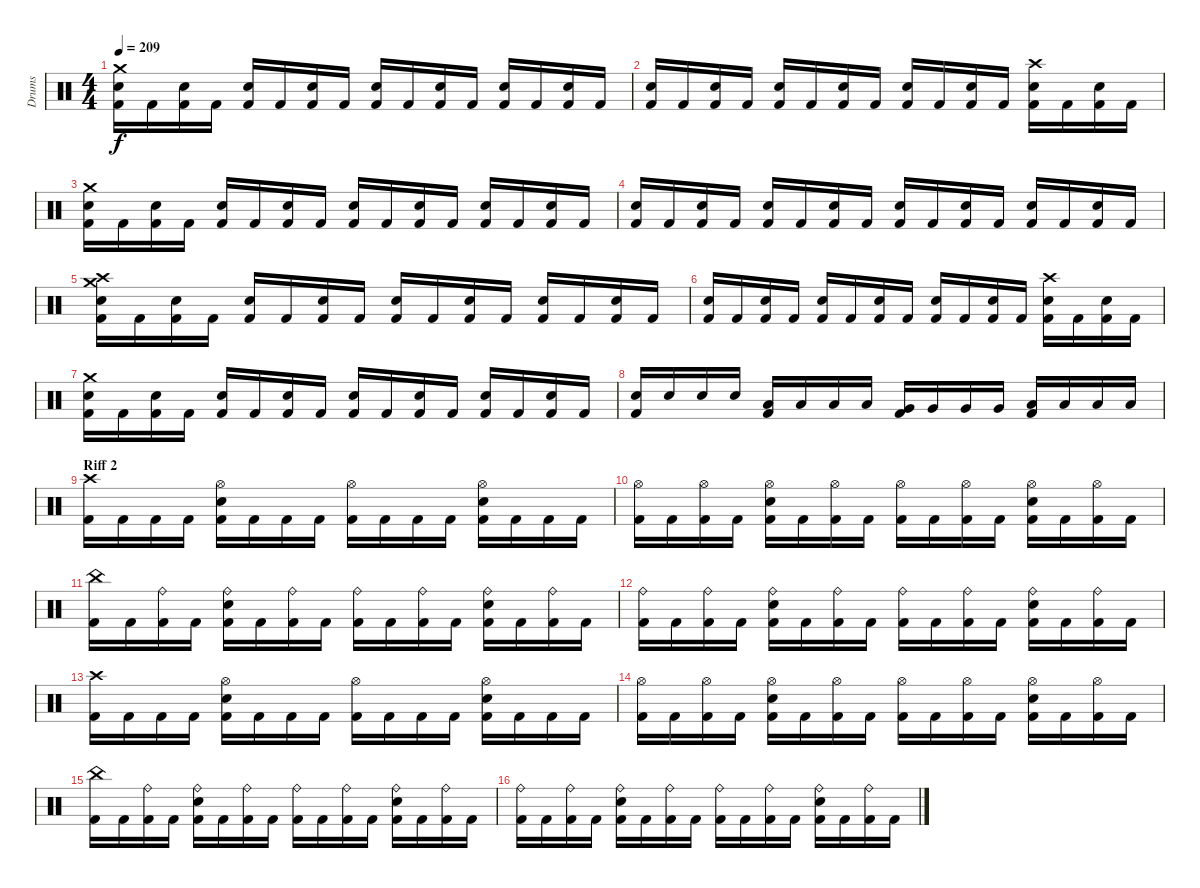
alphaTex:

\track ("Drums" "Drums") {instrument percussion}
\staff {score}
\articulation defaults
\ts (4 4)
\tempo 209
\clef neutral
\ks c
("Kick (hit) 2" "Snare (hit) 2" "Crash medium (hit)").16{dy f} "Kick (hit) 2".16 ("Kick (hit) 2" "Snare (hit) 2").16 "Kick (hit) 2".16 ("Kick (hit) 2" "Snare (hit) 2").16 "Kick (hit) 2".16 ("Kick (hit) 2" "Snare (hit) 2").16 "Kick (hit) 2".16 ("Kick (hit) 2" "Snare (hit) 2").16 "Kick (hit) 2".16 ("Kick (hit) 2" "Snare (hit) 2").16 "Kick (hit) 2".16 ("Kick (hit) 2" "Snare (hit) 2").16 "Kick (hit) 2".16 ("Kick (hit) 2" "Snare (hit) 2").16 "Kick (hit) 2".16 |
("Kick (hit) 2" "Snare (hit) 2").16 "Kick (hit) 2".16 ("Kick (hit) 2" "Snare (hit) 2").16 "Kick (hit) 2".16 ("Kick (hit) 2" "Snare (hit) 2").16 "Kick (hit) 2".16 ("Kick (hit) 2" "Snare (hit) 2").16 "Kick (hit) 2".16 ("Kick (hit) 2" "Snare (hit) 2").16 "Kick (hit) 2".16 ("Kick (hit) 2" "Snare (hit) 2").16 "Kick (hit) 2".16 ("Kick (hit) 2" "Snare (hit) 2" "Crash high (hit)").16 "Kick (hit) 2".16 ("Kick (hit) 2" "Snare (hit) 2").16 "Kick (hit) 2".16 |
("Kick (hit) 2" "Snare (hit) 2" "Crash medium (hit)").16 "Kick (hit) 2".16 ("Kick (hit) 2" "Snare (hit) 2").16 "Kick (hit) 2".16 ("Kick (hit) 2" "Snare (hit) 2").16 "Kick (hit) 2".16 ("Kick (hit) 2" "Snare (hit) 2").16 "Kick (hit) 2".16 ("Kick (hit) 2" "Snare (hit) 2").16 "Kick (hit) 2".16 ("Kick (hit) 2" "Snare (hit) 2").16 "Kick (hit) 2".16 ("Kick (hit) 2" "Snare (hit) 2").16 "Kick (hit) 2".16 ("Kick (hit) 2" "Snare (hit) 2").16 "Kick (hit) 2".16 |
("Kick (hit) 2" "Snare (hit) 2").16 "Kick (hit) 2".16 ("Kick (hit) 2" "Snare (hit) 2").16 "Kick (hit) 2".16 ("Kick (hit) 2" "Snare (hit) 2").16 "Kick (hit) 2".16 ("Kick (hit) 2" "Snare (hit) 2").16 "Kick (hit) 2".16 ("Kick (hit) 2" "Snare (hit) 2").16 "Kick (hit) 2".16 ("Kick (hit) 2" "Snare (hit) 2").16 "Kick (hit) 2".16 ("Kick (hit) 2" "Snare (hit) 2").16 "Kick (hit) 2".16 ("Kick (hit) 2" "Snare (hit) 2").16 "Kick (hit) 2".16 |
("Kick (hit) 2" "Snare (hit) 2" "Crash high (hit)" "Crash medium (hit)").16 "Kick (hit) 2".16 ("Kick (hit) 2" "Snare (hit) 2").16 "Kick (hit) 2".16 ("Kick (hit) 2" "Snare (hit) 2").16 "Kick (hit) 2".16 ("Kick (hit) 2" "Snare (hit) 2").16 "Kick (hit) 2".16 ("Kick (hit) 2" "Snare (hit) 2").16 "Kick (hit) 2".16 ("Kick (hit) 2" "Snare (hit) 2").16 "Kick (hit) 2".16 ("Kick (hit) 2" "Snare (hit) 2").16 "Kick (hit) 2".16 ("Kick (hit) 2" "Snare (hit) 2").16 "Kick (hit) 2".16 |
("Kick (hit) 2" "Snare (hit) 2").16 "Kick (hit) 2".16 ("Kick (hit) 2" "Snare (hit) 2").16 "Kick (hit) 2".16 ("Kick (hit) 2" "Snare (hit) 2").16 "Kick (hit) 2".16 ("Kick (hit) 2" "Snare (hit) 2").16 "Kick (hit) 2".16 ("Kick (hit) 2" "Snare (hit) 2").16 "Kick (hit) 2".16 ("Kick (hit) 2" "Snare (hit) 2").16 "Kick (hit) 2".16 ("Kick (hit) 2" "Snare (hit) 2" "Crash high (hit)").16 "Kick (hit) 2".16 ("Kick (hit) 2" "Snare (hit) 2").16 "Kick (hit) 2".16 |
("Kick (hit) 2" "Snare (hit) 2" "Crash medium (hit)").16 "Kick (hit) 2".16 ("Kick (hit) 2" "Snare (hit) 2").16 "Kick (hit) 2".16 ("Kick (hit) 2" "Snare (hit) 2").16 "Kick (hit) 2".16 ("Kick (hit) 2" "Snare (hit) 2").16 "Kick (hit) 2".16 ("Kick (hit) 2" "Snare (hit) 2").16 "Kick (hit) 2".16 ("Kick (hit) 2" "Snare (hit) 2").16 "Kick (hit) 2".16 ("Kick (hit) 2" "Snare (hit) 2").16 "Kick (hit) 2".16 ("Kick (hit) 2" "Snare (hit) 2").16 "Kick (hit) 2".16 |
("Kick (hit) 2" "Snare (hit) 2").16 "Snare (hit) 2".16 "Snare (hit) 2".16 "Snare (hit) 2".16 ("Kick (hit) 2" "Low Tom (hit)").16 "Low Tom (hit)".16 "Low Tom (hit)".16 "Low Tom (hit)".16 ("Kick (hit) 2" "Very Low Tom (hit)").16 "Very Low Tom (hit)".16 "Very Low Tom (hit)".16 "Very Low Tom (hit)".16 ("Kick (hit) 2" "Low Floor Tom (hit)").16 "Low Floor Tom (hit)".16 "Low Floor Tom (hit)".16 "Low Floor Tom (hit)".16 |
\section ("" "Riff 2")
("Kick (hit) 2" "Crash high (hit)").16 "Kick (hit) 2".16 "Kick (hit) 2".16 "Kick (hit) 2".16 ("Kick (hit) 2" "Snare (hit) 2" "Hi-Hat (open)").16 "Kick (hit) 2".16 "Kick (hit) 2".16 "Kick (hit) 2".16 ("Kick (hit) 2" "Hi-Hat (open)").16 "Kick (hit) 2".16 "Kick (hit) 2".16 "Kick (hit) 2".16 ("Kick (hit) 2" "Snare (hit) 2" "Hi-Hat (open)").16 "Kick (hit) 2".16 "Kick (hit) 2".16 "Kick (hit) 2".16 |
("Kick (hit) 2" "Hi-Hat (open)").16 "Kick (hit) 2".16 ("Kick (hit) 2" "Hi-Hat (open)").16 "Kick (hit) 2".16 ("Kick (hit) 2" "Snare (hit) 2" "Hi-Hat (open)").16 "Kick (hit) 2".16 ("Kick (hit) 2" "Hi-Hat (open)").16 "Kick (hit) 2".16 ("Kick (hit) 2" "Hi-Hat (open)").16 "Kick (hit) 2".16 ("Kick (hit) 2" "Hi-Hat (open)").16 "Kick (hit) 2".16 ("Kick (hit) 2" "Snare (hit) 2" "Hi-Hat (open)").16 "Kick (hit) 2".16 ("Kick (hit) 2" "Hi-Hat (open)").16 "Kick (hit) 2".16 |
("Kick (hit) 2" "China (hit)").16 "Kick (hit) 2".16 ("Kick (hit) 2" "Ride (bell)").16 "Kick (hit) 2".16 ("Kick (hit) 2" "Snare (hit) 2" "Ride (bell)").16 "Kick (hit) 2".16 ("Kick (hit) 2" "Ride (bell)").16 "Kick (hit) 2".16 ("Kick (hit) 2" "Ride (bell)").16 "Kick (hit) 2".16 ("Kick (hit) 2" "Ride (bell)").16 "Kick (hit) 2".16 ("Kick (hit) 2" "Snare (hit) 2" "Ride (bell)").16 "Kick (hit) 2".16 ("Kick (hit) 2" "Ride (bell)").16 "Kick (hit) 2".16 |
("Kick (hit) 2" "Ride (bell)").16 "Kick (hit) 2".16 ("Kick (hit) 2" "Ride (bell)").16 "Kick (hit) 2".16 ("Kick (hit) 2" "Snare (hit) 2" "Ride (bell)").16 "Kick (hit) 2".16 ("Kick (hit) 2" "Ride (bell)").16 "Kick (hit) 2".16 ("Kick (hit) 2" "Ride (bell)").16 "Kick (hit) 2".16 ("Kick (hit) 2" "Ride (bell)").16 "Kick (hit) 2".16 ("Kick (hit) 2" "Snare (hit) 2" "Ride (bell)").16 "Kick (hit) 2".16 ("Kick (hit) 2" "Ride (bell)").16 "Kick (hit) 2".16 |
("Kick (hit) 2" "Crash high (hit)").16 "Kick (hit) 2".16 "Kick (hit) 2".16 "Kick (hit) 2".16 ("Kick (hit) 2" "Snare (hit) 2" "Hi-Hat (open)").16 "Kick (hit) 2".16 "Kick (hit) 2".16 "Kick (hit) 2".16 ("Kick (hit) 2" "Hi-Hat (open)").16 "Kick (hit) 2".16 "Kick (hit) 2".16 "Kick (hit) 2".16 ("Kick (hit) 2" "Snare (hit) 2" "Hi-Hat (open)").16 "Kick (hit) 2".16 "Kick (hit) 2".16 "Kick (hit) 2".16 |
("Kick (hit) 2" "Hi-Hat (open)").16 "Kick (hit) 2".16 ("Kick (hit) 2" "Hi-Hat (open)").16 "Kick (hit) 2".16 ("Kick (hit) 2" "Snare (hit) 2" "Hi-Hat (open)").16 "Kick (hit) 2".16 ("Kick (hit) 2" "Hi-Hat (open)").16 "Kick (hit) 2".16 ("Kick (hit) 2" "Hi-Hat (open)").16 "Kick (hit) 2".16 ("Kick (hit) 2" "Hi-Hat (open)").16 "Kick (hit) 2".16 ("Kick (hit) 2" "Snare (hit) 2" "Hi-Hat (open)").16 "Kick (hit) 2".16 ("Kick (hit) 2" "Hi-Hat (open)").16 "Kick (hit) 2".16 |
("Kick (hit) 2" "China (hit)").16 "Kick (hit) 2".16 ("Kick (hit) 2" "Ride (bell)").16 "Kick (hit) 2".16 ("Kick (hit) 2" "Snare (hit) 2" "Ride (bell)").16 "Kick (hit) 2".16 ("Kick (hit) 2" "Ride (bell)").16 "Kick (hit) 2".16 ("Kick (hit) 2" "Ride (bell)").16 "Kick (hit) 2".16 ("Kick (hit) 2" "Ride (bell)").16 "Kick (hit) 2".16 ("Kick (hit) 2" "Snare (hit) 2" "Ride (bell)").16 "Kick (hit) 2".16 ("Kick (hit) 2" "Ride (bell)").16 "Kick (hit) 2".16 |
("Kick (hit) 2" "Ride (bell)").16 "Kick (hit) 2".16 ("Kick (hit) 2" "Ride (bell)").16 "Kick (hit) 2".16 ("Kick (hit) 2" "Snare (hit) 2" "Ride (bell)").16 "Kick (hit) 2".16 ("Kick (hit) 2" "Ride (bell)").16 "Kick (hit) 2".16 ("Kick (hit) 2" "Ride (bell)").16 "Kick (hit) 2".16 ("Kick (hit) 2" "Ride (bell)").16 "Kick (hit) 2".16 ("Kick (hit) 2" "Snare (hit) 2" "Ride (bell)").16 "Kick (hit) 2".16 ("Kick (hit) 2" "Ride (bell)").16 "Kick (hit) 2".16
